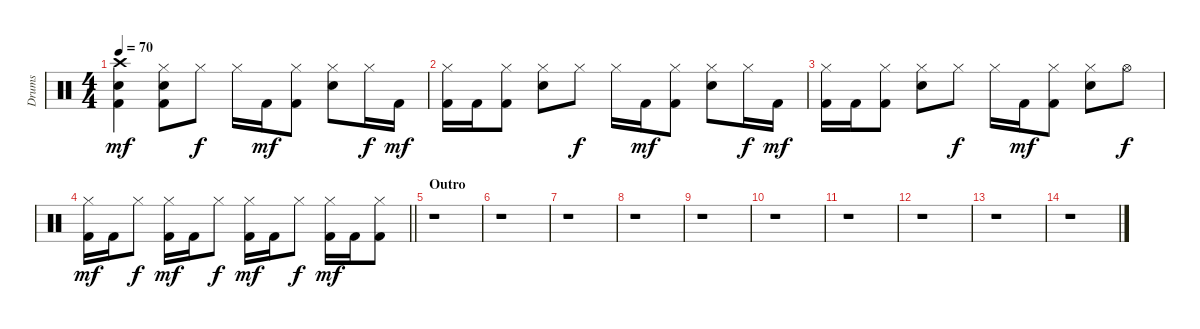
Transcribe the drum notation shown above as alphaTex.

\track ("Drums" "Drums") {instrument percussion}
\staff {score}
\articulation defaults
\ts (4 4)
\tempo 70
\clef neutral
\ks c
("Crash high (hit)" "Electric Snare (hit)" "Kick (hit) 2").4{dy mf} ("Hi-Hat (closed)" "Electric Snare (hit)" "Kick (hit) 2").8 "Hi-Hat (closed)".8{dy f} "Hi-Hat (closed)".16 "Kick (hit) 2".16{dy mf} ("Hi-Hat (closed)" "Kick (hit) 2").8 ("Hi-Hat (closed)" "Electric Snare (hit)").8 "Hi-Hat (closed)".16{dy f} "Kick (hit) 2".16{dy mf} |
("Hi-Hat (closed)" "Kick (hit) 2").16 "Kick (hit) 2".16 ("Hi-Hat (closed)" "Kick (hit) 2").8 ("Hi-Hat (closed)" "Electric Snare (hit)").8 "Hi-Hat (closed)".8{dy f} "Hi-Hat (closed)".16 "Kick (hit) 2".16{dy mf} ("Hi-Hat (closed)" "Kick (hit) 2").8 ("Hi-Hat (closed)" "Electric Snare (hit)").8 "Hi-Hat (closed)".16{dy f} "Kick (hit) 2".16{dy mf} |
("Hi-Hat (closed)" "Kick (hit) 2").16 "Kick (hit) 2".16 ("Hi-Hat (closed)" "Kick (hit) 2").8 ("Hi-Hat (closed)" "Electric Snare (hit)").8 "Hi-Hat (closed)".8{dy f} "Hi-Hat (closed)".16 "Kick (hit) 2".16{dy mf} ("Hi-Hat (closed)" "Kick (hit) 2").8 ("Hi-Hat (closed)" "Electric Snare (hit)").8 "Hi-Hat (open)".8{dy f} |
\barLineRight lightlight
("Hi-Hat (closed)" "Kick (hit) 2").16{dy mf} "Kick (hit) 2".16 "Hi-Hat (closed)".8{dy f} ("Hi-Hat (closed)" "Kick (hit) 2").16{dy mf} "Kick (hit) 2".16 "Hi-Hat (closed)".8{dy f} ("Hi-Hat (closed)" "Kick (hit) 2").16{dy mf} "Kick (hit) 2".16 "Hi-Hat (closed)".8{dy f} ("Hi-Hat (closed)" "Kick (hit) 2").16{dy mf} "Kick (hit) 2".16 ("Hi-Hat (closed)" "Kick (hit) 2").8 |
\section ("" "Outro")
r.1 |
r.1 |
r.1 |
r.1 |
r.1 |
r.1 |
r.1 |
r.1 |
r.1 |
r.1
